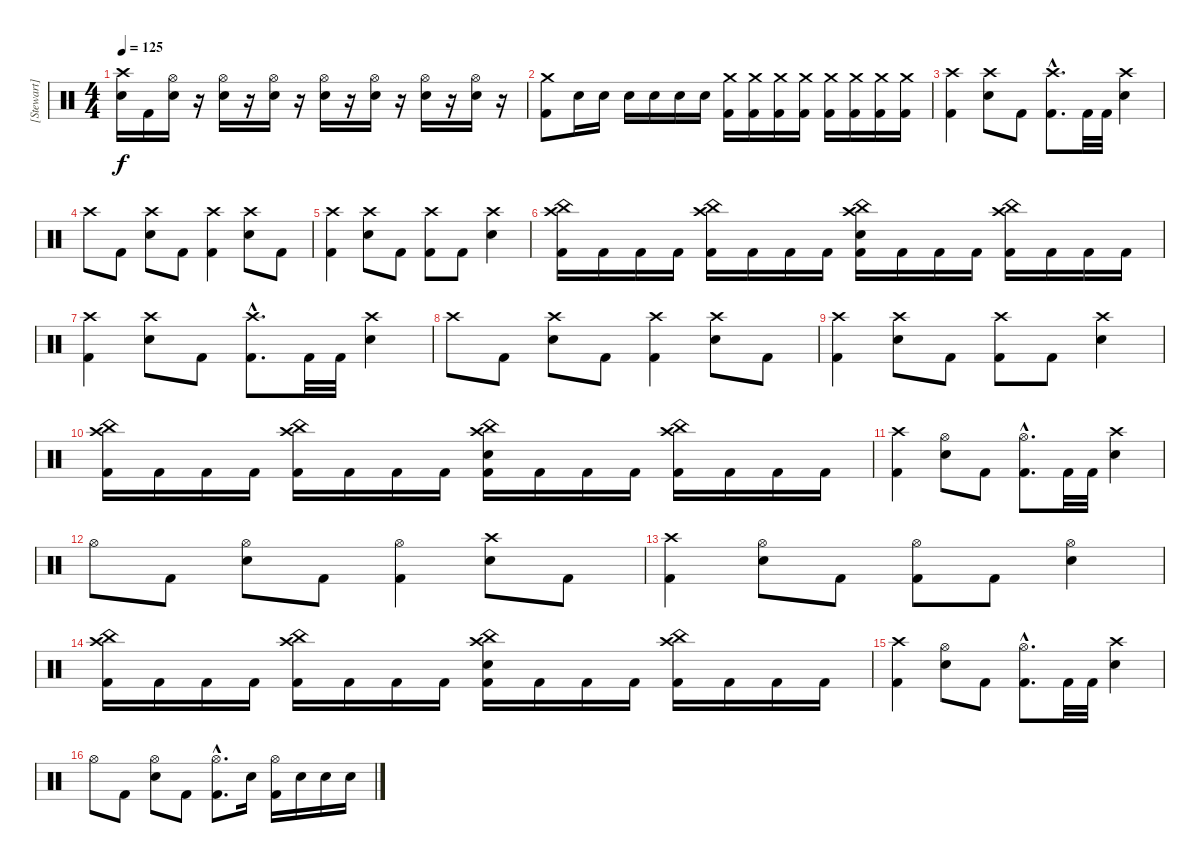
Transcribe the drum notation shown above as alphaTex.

\track ("[Stewart]" "[Stewart]") {instrument percussion}
\staff {score}
\articulation defaults
\ts (4 4)
\tempo 125
\clef neutral
\ks c
("Crash high (hit)" "Electric Snare (hit)").16{dy f} "Kick (hit) 2".16 ("Hi-Hat (open)" "Electric Snare (hit)").16 r.16 ("Hi-Hat (open)" "Electric Snare (hit)").16 r.16 ("Hi-Hat (open)" "Electric Snare (hit)").16 r.16 ("Hi-Hat (open)" "Electric Snare (hit)").16 r.16 ("Hi-Hat (open)" "Electric Snare (hit)").16 r.16 ("Hi-Hat (open)" "Electric Snare (hit)").16 r.16 ("Hi-Hat (open)" "Electric Snare (hit)").16 r.16 |
("Crash medium (hit)" "Kick (hit) 2").8 "Electric Snare (hit)".16 "Electric Snare (hit)".16 "Electric Snare (hit)".16 "Electric Snare (hit)".16 "Electric Snare (hit)".16 "Electric Snare (hit)".16 ("Crash medium (hit)" "Kick (hit) 2").16 ("Crash medium (hit)" "Kick (hit) 2").16 ("Crash medium (hit)" "Kick (hit) 2").16 ("Crash medium (hit)" "Kick (hit) 2").16 ("Crash medium (hit)" "Kick (hit) 2").16 ("Crash medium (hit)" "Kick (hit) 2").16 ("Crash medium (hit)" "Kick (hit) 2").16 ("Crash medium (hit)" "Kick (hit) 2").16 |
("Crash high (hit)" "Kick (hit) 2").4 ("Crash high (hit)" "Electric Snare (hit)").8 "Kick (hit) 2".8 ("Crash high (hit)"{hac} "Kick (hit) 2"{hac}).8{d} "Kick (hit) 2".32 "Kick (hit) 2".32 ("Crash high (hit)" "Electric Snare (hit)").4 |
"Crash high (hit)".8 "Kick (hit) 2".8 ("Crash high (hit)" "Electric Snare (hit)").8 "Kick (hit) 2".8 ("Crash high (hit)" "Kick (hit) 2").4 ("Crash high (hit)" "Electric Snare (hit)").8 "Kick (hit) 2".8 |
("Crash high (hit)" "Kick (hit) 2").4 ("Crash high (hit)" "Electric Snare (hit)").8 "Kick (hit) 2".8 ("Crash high (hit)" "Kick (hit) 2").8 "Kick (hit) 2".8 ("Crash high (hit)" "Electric Snare (hit)").4 |
("China (hit)" "Crash high (hit)" "Kick (hit) 2").16 "Kick (hit) 2".16 "Kick (hit) 2".16 "Kick (hit) 2".16 ("China (hit)" "Crash high (hit)" "Kick (hit) 2").16 "Kick (hit) 2".16 "Kick (hit) 2".16 "Kick (hit) 2".16 ("China (hit)" "Crash high (hit)" "Electric Snare (hit)" "Kick (hit) 2").16 "Kick (hit) 2".16 "Kick (hit) 2".16 "Kick (hit) 2".16 ("China (hit)" "Crash high (hit)" "Kick (hit) 2").16 "Kick (hit) 2".16 "Kick (hit) 2".16 "Kick (hit) 2".16 |
("Crash high (hit)" "Kick (hit) 2").4 ("Crash high (hit)" "Electric Snare (hit)").8 "Kick (hit) 2".8 ("Crash high (hit)"{hac} "Kick (hit) 2"{hac}).8{d} "Kick (hit) 2".32 "Kick (hit) 2".32 ("Crash high (hit)" "Electric Snare (hit)").4 |
"Crash high (hit)".8 "Kick (hit) 2".8 ("Crash high (hit)" "Electric Snare (hit)").8 "Kick (hit) 2".8 ("Crash high (hit)" "Kick (hit) 2").4 ("Crash high (hit)" "Electric Snare (hit)").8 "Kick (hit) 2".8 |
("Crash high (hit)" "Kick (hit) 2").4 ("Crash high (hit)" "Electric Snare (hit)").8 "Kick (hit) 2".8 ("Crash high (hit)" "Kick (hit) 2").8 "Kick (hit) 2".8 ("Crash high (hit)" "Electric Snare (hit)").4 |
("China (hit)" "Crash high (hit)" "Kick (hit) 2").16 "Kick (hit) 2".16 "Kick (hit) 2".16 "Kick (hit) 2".16 ("China (hit)" "Crash high (hit)" "Kick (hit) 2").16 "Kick (hit) 2".16 "Kick (hit) 2".16 "Kick (hit) 2".16 ("China (hit)" "Crash high (hit)" "Electric Snare (hit)" "Kick (hit) 2").16 "Kick (hit) 2".16 "Kick (hit) 2".16 "Kick (hit) 2".16 ("China (hit)" "Crash high (hit)" "Kick (hit) 2").16 "Kick (hit) 2".16 "Kick (hit) 2".16 "Kick (hit) 2".16 |
("Crash high (hit)" "Kick (hit) 2").4 ("Hi-Hat (open)" "Electric Snare (hit)").8 "Kick (hit) 2".8 ("Hi-Hat (open)"{hac} "Kick (hit) 2"{hac}).8{d} "Kick (hit) 2".32 "Kick (hit) 2".32 ("Crash high (hit)" "Electric Snare (hit)").4 |
"Hi-Hat (open)".8 "Kick (hit) 2".8 ("Hi-Hat (open)" "Electric Snare (hit)").8 "Kick (hit) 2".8 ("Hi-Hat (open)" "Kick (hit) 2").4 ("Crash high (hit)" "Electric Snare (hit)").8 "Kick (hit) 2".8 |
("Crash high (hit)" "Kick (hit) 2").4 ("Hi-Hat (open)" "Electric Snare (hit)").8 "Kick (hit) 2".8 ("Hi-Hat (open)" "Kick (hit) 2").8 "Kick (hit) 2".8 ("Hi-Hat (open)" "Electric Snare (hit)").4 |
("China (hit)" "Crash high (hit)" "Kick (hit) 2").16 "Kick (hit) 2".16 "Kick (hit) 2".16 "Kick (hit) 2".16 ("China (hit)" "Crash high (hit)" "Kick (hit) 2").16 "Kick (hit) 2".16 "Kick (hit) 2".16 "Kick (hit) 2".16 ("China (hit)" "Crash high (hit)" "Electric Snare (hit)" "Kick (hit) 2").16 "Kick (hit) 2".16 "Kick (hit) 2".16 "Kick (hit) 2".16 ("China (hit)" "Crash high (hit)" "Kick (hit) 2").16 "Kick (hit) 2".16 "Kick (hit) 2".16 "Kick (hit) 2".16 |
("Crash high (hit)" "Kick (hit) 2").4 ("Hi-Hat (open)" "Electric Snare (hit)").8 "Kick (hit) 2".8 ("Hi-Hat (open)"{hac} "Kick (hit) 2"{hac}).8{d} "Kick (hit) 2".32 "Kick (hit) 2".32 ("Crash high (hit)" "Electric Snare (hit)").4 |
"Hi-Hat (open)".8 "Kick (hit) 2".8 ("Hi-Hat (open)" "Electric Snare (hit)").8 "Kick (hit) 2".8 ("Hi-Hat (open)"{hac} "Kick (hit) 2"{hac}).8{d} "Electric Snare (hit)".16 ("Hi-Hat (open)" "Kick (hit) 2").16 "Electric Snare (hit)".16 "Electric Snare (hit)".16 "Electric Snare (hit)".16
